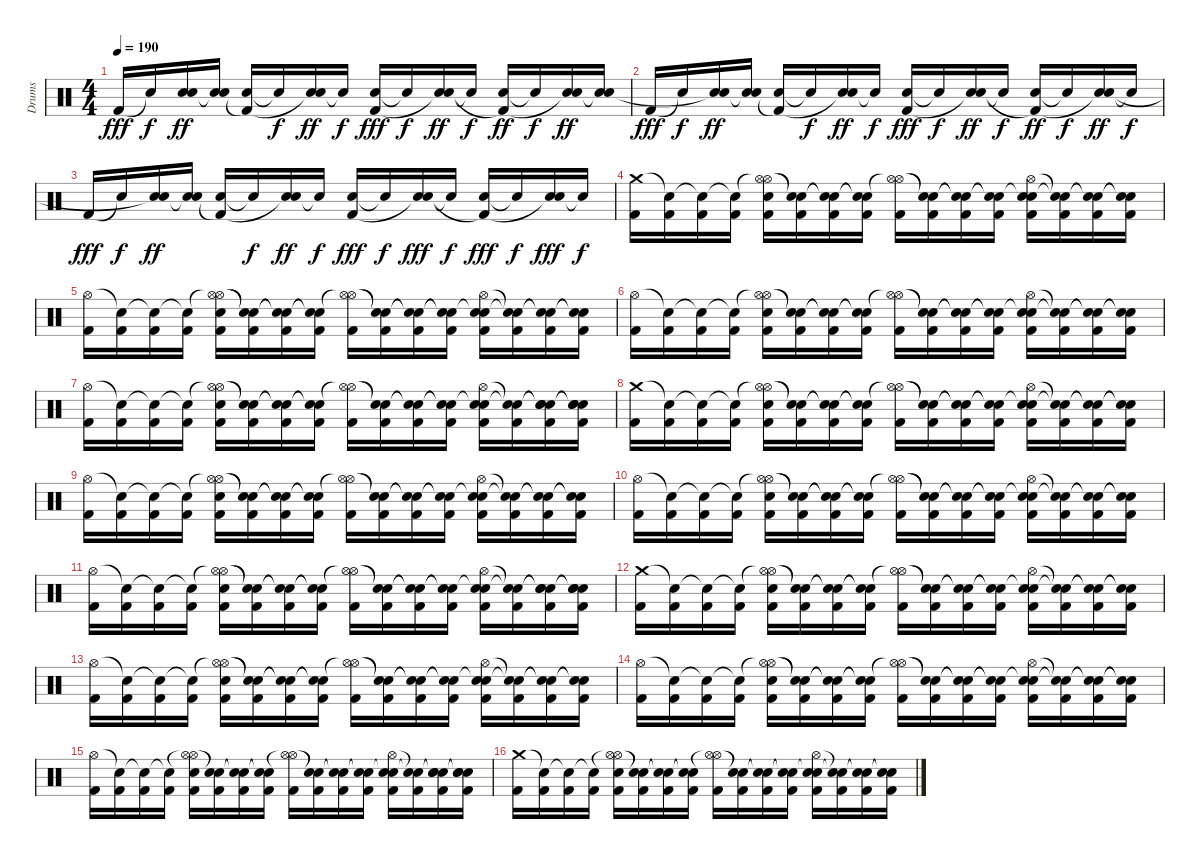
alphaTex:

\track ("Drums" "Drums") {instrument percussion}
\staff {score}
\articulation defaults
\ts (4 4)
\tempo 190
\clef neutral
\ks c "Kick (hit) 2".16{dy fff} "Snare (hit)"{t}.16{dy f}
("Electric Snare (hit)" "Snare (hit)"{t}).16{dy ff} ("Electric Snare (hit)" "Snare (hit)"{t}).16 ("Electric Snare (hit)" "Kick (hit) 2"{t}).16 "Snare (hit)"{t}.16{dy f} ("Electric Snare (hit)" "Snare (hit)"{t}).16{dy ff} "Snare (hit)"{t}.16{dy f} ("Electric Snare (hit)" "Kick (hit) 2").16{dy fff} "Snare (hit)"{t}.16{dy f} ("Electric Snare (hit)" "Snare (hit)"{t}).16{dy ff} "Snare (hit)"{t}.16{dy f} ("Electric Snare (hit)" "Kick (hit) 2"{t}).16{dy ff} "Snare (hit)"{t}.16{dy f} ("Electric Snare (hit)" "Snare (hit)"{t}).16{dy ff} ("Electric Snare (hit)" "Snare (hit)"{t}).16 |
"Kick (hit) 2".16{dy fff} "Snare (hit)"{t}.16{dy f} ("Electric Snare (hit)" "Snare (hit)"{t}).16{dy ff} ("Electric Snare (hit)" "Snare (hit)"{t}).16 ("Electric Snare (hit)" "Kick (hit) 2"{t}).16 "Snare (hit)"{t}.16{dy f} ("Electric Snare (hit)" "Snare (hit)"{t}).16{dy ff} "Snare (hit)"{t}.16{dy f} ("Electric Snare (hit)" "Kick (hit) 2").16{dy fff} "Snare (hit)"{t}.16{dy f} ("Electric Snare (hit)" "Snare (hit)"{t}).16{dy ff} "Snare (hit)"{t}.16{dy f} ("Electric Snare (hit)" "Kick (hit) 2"{t}).16{dy ff} "Snare (hit)"{t}.16{dy f} ("Electric Snare (hit)" "Snare (hit)"{t}).16{dy ff} "Snare (hit)"{t}.16{dy f} |
"Kick (hit) 2".16{dy fff} "Snare (hit)"{t}.16{dy f} ("Electric Snare (hit)" "Snare (hit)"{t}).16{dy ff} ("Electric Snare (hit)" "Snare (hit)"{t}).16 ("Electric Snare (hit)" "Kick (hit) 2"{t}).16 "Snare (hit)"{t}.16{dy f} ("Electric Snare (hit)" "Snare (hit)"{t}).16{dy ff} "Snare (hit)"{t}.16{dy f} ("Electric Snare (hit)" "Kick (hit) 2").16{dy fff} "Snare (hit)"{t}.16{dy f} ("Electric Snare (hit)" "Snare (hit)"{t}).16{dy fff} "Snare (hit)"{t}.16{dy f} ("Electric Snare (hit)" "Kick (hit) 2"{t}).16{dy fff} "Snare (hit)"{t}.16{dy f} ("Electric Snare (hit)" "Snare (hit)"{t}).16{dy fff} "Snare (hit)"{t}.16{dy f} |
("Crash medium (hit)" "Kick (hit) 2").16 ("Snare (hit)"{t} "Kick (hit) 2").16 ("Snare (hit)"{t} "Kick (hit) 2").16 ("Snare (hit)"{t} "Kick (hit) 2").16 ("Hi-Hat (open)"{t} "Hi-Hat (open)" "Electric Snare (hit)" "Kick (hit) 2").16 ("Snare (hit)"{t} "Snare (hit)"{t} "Kick (hit) 2").16 ("Snare (hit)"{t} "Snare (hit)"{t} "Kick (hit) 2").16 ("Snare (hit)"{t} "Snare (hit)"{t} "Kick (hit) 2").16 ("Hi-Hat (open)" "Hi-Hat (open)"{t} "Kick (hit) 2").16 ("Snare (hit)"{t} "Snare (hit)"{t} "Kick (hit) 2").16 ("Snare (hit)"{t} "Snare (hit)"{t} "Kick (hit) 2").16 ("Snare (hit)"{t} "Snare (hit)"{t} "Kick (hit) 2").16 ("Snare (hit)"{t} "Hi-Hat (open)" "Electric Snare (hit)" "Kick (hit) 2").16 ("Snare (hit)"{t} "Snare (hit)"{t} "Kick (hit) 2").16 ("Snare (hit)"{t} "Snare (hit)"{t} "Kick (hit) 2").16 ("Snare (hit)"{t} "Snare (hit)"{t} "Kick (hit) 2").16 |
("Hi-Hat (open)" "Kick (hit) 2").16 ("Snare (hit)"{t} "Kick (hit) 2").16 ("Snare (hit)"{t} "Kick (hit) 2").16 ("Snare (hit)"{t} "Kick (hit) 2").16 ("Hi-Hat (open)"{t} "Hi-Hat (open)" "Electric Snare (hit)" "Kick (hit) 2").16 ("Snare (hit)"{t} "Snare (hit)"{t} "Kick (hit) 2").16 ("Snare (hit)"{t} "Snare (hit)"{t} "Kick (hit) 2").16 ("Snare (hit)"{t} "Snare (hit)"{t} "Kick (hit) 2").16 ("Hi-Hat (open)" "Hi-Hat (open)"{t} "Kick (hit) 2").16 ("Snare (hit)"{t} "Snare (hit)"{t} "Kick (hit) 2").16 ("Snare (hit)"{t} "Snare (hit)"{t} "Kick (hit) 2").16 ("Snare (hit)"{t} "Snare (hit)"{t} "Kick (hit) 2").16 ("Snare (hit)"{t} "Hi-Hat (open)" "Electric Snare (hit)" "Kick (hit) 2").16 ("Snare (hit)"{t} "Snare (hit)"{t} "Kick (hit) 2").16 ("Snare (hit)"{t} "Snare (hit)"{t} "Kick (hit) 2").16 ("Snare (hit)"{t} "Snare (hit)"{t} "Kick (hit) 2").16 |
("Hi-Hat (open)" "Kick (hit) 2").16 ("Snare (hit)"{t} "Kick (hit) 2").16 ("Snare (hit)"{t} "Kick (hit) 2").16 ("Snare (hit)"{t} "Kick (hit) 2").16 ("Hi-Hat (open)"{t} "Hi-Hat (open)" "Electric Snare (hit)" "Kick (hit) 2").16 ("Snare (hit)"{t} "Snare (hit)"{t} "Kick (hit) 2").16 ("Snare (hit)"{t} "Snare (hit)"{t} "Kick (hit) 2").16 ("Snare (hit)"{t} "Snare (hit)"{t} "Kick (hit) 2").16 ("Hi-Hat (open)" "Hi-Hat (open)"{t} "Kick (hit) 2").16 ("Snare (hit)"{t} "Snare (hit)"{t} "Kick (hit) 2").16 ("Snare (hit)"{t} "Snare (hit)"{t} "Kick (hit) 2").16 ("Snare (hit)"{t} "Snare (hit)"{t} "Kick (hit) 2").16 ("Snare (hit)"{t} "Hi-Hat (open)" "Electric Snare (hit)" "Kick (hit) 2").16 ("Snare (hit)"{t} "Snare (hit)"{t} "Kick (hit) 2").16 ("Snare (hit)"{t} "Snare (hit)"{t} "Kick (hit) 2").16 ("Snare (hit)"{t} "Snare (hit)"{t} "Kick (hit) 2").16 |
("Hi-Hat (open)" "Kick (hit) 2").16 ("Snare (hit)"{t} "Kick (hit) 2").16 ("Snare (hit)"{t} "Kick (hit) 2").16 ("Snare (hit)"{t} "Kick (hit) 2").16 ("Hi-Hat (open)"{t} "Hi-Hat (open)" "Electric Snare (hit)" "Kick (hit) 2").16 ("Snare (hit)"{t} "Snare (hit)"{t} "Kick (hit) 2").16 ("Snare (hit)"{t} "Snare (hit)"{t} "Kick (hit) 2").16 ("Snare (hit)"{t} "Snare (hit)"{t} "Kick (hit) 2").16 ("Hi-Hat (open)" "Hi-Hat (open)"{t} "Kick (hit) 2").16 ("Snare (hit)"{t} "Snare (hit)"{t} "Kick (hit) 2").16 ("Snare (hit)"{t} "Snare (hit)"{t} "Kick (hit) 2").16 ("Snare (hit)"{t} "Snare (hit)"{t} "Kick (hit) 2").16 ("Snare (hit)"{t} "Hi-Hat (open)" "Electric Snare (hit)" "Kick (hit) 2").16 ("Snare (hit)"{t} "Snare (hit)"{t} "Kick (hit) 2").16 ("Snare (hit)"{t} "Snare (hit)"{t} "Electric Snare (hit)" "Kick (hit) 2").16 ("Snare (hit)"{t} "Snare (hit)"{t} "Electric Snare (hit)" "Kick (hit) 2").16 |
("Crash medium (hit)" "Kick (hit) 2").16 ("Snare (hit)"{t} "Kick (hit) 2").16 ("Snare (hit)"{t} "Kick (hit) 2").16 ("Snare (hit)"{t} "Kick (hit) 2").16 ("Hi-Hat (open)"{t} "Hi-Hat (open)" "Electric Snare (hit)" "Kick (hit) 2").16 ("Snare (hit)"{t} "Snare (hit)"{t} "Kick (hit) 2").16 ("Snare (hit)"{t} "Snare (hit)"{t} "Kick (hit) 2").16 ("Snare (hit)"{t} "Snare (hit)"{t} "Kick (hit) 2").16 ("Hi-Hat (open)" "Hi-Hat (open)"{t} "Kick (hit) 2").16 ("Snare (hit)"{t} "Snare (hit)"{t} "Kick (hit) 2").16 ("Snare (hit)"{t} "Snare (hit)"{t} "Kick (hit) 2").16 ("Snare (hit)"{t} "Snare (hit)"{t} "Kick (hit) 2").16 ("Snare (hit)"{t} "Hi-Hat (open)" "Electric Snare (hit)" "Kick (hit) 2").16 ("Snare (hit)"{t} "Snare (hit)"{t} "Kick (hit) 2").16 ("Snare (hit)"{t} "Snare (hit)"{t} "Kick (hit) 2").16 ("Snare (hit)"{t} "Snare (hit)"{t} "Kick (hit) 2").16 |
("Hi-Hat (open)" "Kick (hit) 2").16 ("Snare (hit)"{t} "Kick (hit) 2").16 ("Snare (hit)"{t} "Kick (hit) 2").16 ("Snare (hit)"{t} "Kick (hit) 2").16 ("Hi-Hat (open)"{t} "Hi-Hat (open)" "Electric Snare (hit)" "Kick (hit) 2").16 ("Snare (hit)"{t} "Snare (hit)"{t} "Kick (hit) 2").16 ("Snare (hit)"{t} "Snare (hit)"{t} "Kick (hit) 2").16 ("Snare (hit)"{t} "Snare (hit)"{t} "Kick (hit) 2").16 ("Hi-Hat (open)" "Hi-Hat (open)"{t} "Kick (hit) 2").16 ("Snare (hit)"{t} "Snare (hit)"{t} "Kick (hit) 2").16 ("Snare (hit)"{t} "Snare (hit)"{t} "Kick (hit) 2").16 ("Snare (hit)"{t} "Snare (hit)"{t} "Kick (hit) 2").16 ("Snare (hit)"{t} "Hi-Hat (open)" "Electric Snare (hit)" "Kick (hit) 2").16 ("Snare (hit)"{t} "Snare (hit)"{t} "Kick (hit) 2").16 ("Snare (hit)"{t} "Snare (hit)"{t} "Kick (hit) 2").16 ("Snare (hit)"{t} "Snare (hit)"{t} "Kick (hit) 2").16 |
("Hi-Hat (open)" "Kick (hit) 2").16 ("Snare (hit)"{t} "Kick (hit) 2").16 ("Snare (hit)"{t} "Kick (hit) 2").16 ("Snare (hit)"{t} "Kick (hit) 2").16 ("Hi-Hat (open)"{t} "Hi-Hat (open)" "Electric Snare (hit)" "Kick (hit) 2").16 ("Snare (hit)"{t} "Snare (hit)"{t} "Kick (hit) 2").16 ("Snare (hit)"{t} "Snare (hit)"{t} "Kick (hit) 2").16 ("Snare (hit)"{t} "Snare (hit)"{t} "Kick (hit) 2").16 ("Hi-Hat (open)" "Hi-Hat (open)"{t} "Kick (hit) 2").16 ("Snare (hit)"{t} "Snare (hit)"{t} "Kick (hit) 2").16 ("Snare (hit)"{t} "Snare (hit)"{t} "Kick (hit) 2").16 ("Snare (hit)"{t} "Snare (hit)"{t} "Kick (hit) 2").16 ("Snare (hit)"{t} "Hi-Hat (open)" "Electric Snare (hit)" "Kick (hit) 2").16 ("Snare (hit)"{t} "Snare (hit)"{t} "Kick (hit) 2").16 ("Snare (hit)"{t} "Snare (hit)"{t} "Kick (hit) 2").16 ("Snare (hit)"{t} "Snare (hit)"{t} "Kick (hit) 2").16 |
("Hi-Hat (open)" "Kick (hit) 2").16 ("Snare (hit)"{t} "Kick (hit) 2").16 ("Snare (hit)"{t} "Kick (hit) 2").16 ("Snare (hit)"{t} "Kick (hit) 2").16 ("Hi-Hat (open)"{t} "Hi-Hat (open)" "Electric Snare (hit)" "Kick (hit) 2").16 ("Snare (hit)"{t} "Snare (hit)"{t} "Kick (hit) 2").16 ("Snare (hit)"{t} "Snare (hit)"{t} "Kick (hit) 2").16 ("Snare (hit)"{t} "Snare (hit)"{t} "Kick (hit) 2").16 ("Hi-Hat (open)" "Hi-Hat (open)"{t} "Kick (hit) 2").16 ("Snare (hit)"{t} "Snare (hit)"{t} "Kick (hit) 2").16 ("Snare (hit)"{t} "Snare (hit)"{t} "Kick (hit) 2").16 ("Snare (hit)"{t} "Snare (hit)"{t} "Kick (hit) 2").16 ("Snare (hit)"{t} "Hi-Hat (open)" "Electric Snare (hit)" "Kick (hit) 2").16 ("Snare (hit)"{t} "Snare (hit)"{t} "Kick (hit) 2").16 ("Snare (hit)"{t} "Snare (hit)"{t} "Electric Snare (hit)" "Kick (hit) 2").16 ("Snare (hit)"{t} "Snare (hit)"{t} "Electric Snare (hit)" "Kick (hit) 2").16 |
("Crash medium (hit)" "Kick (hit) 2").16 ("Snare (hit)"{t} "Kick (hit) 2").16 ("Snare (hit)"{t} "Kick (hit) 2").16 ("Snare (hit)"{t} "Kick (hit) 2").16 ("Hi-Hat (open)"{t} "Hi-Hat (open)" "Electric Snare (hit)" "Kick (hit) 2").16 ("Snare (hit)"{t} "Snare (hit)"{t} "Kick (hit) 2").16 ("Snare (hit)"{t} "Snare (hit)"{t} "Kick (hit) 2").16 ("Snare (hit)"{t} "Snare (hit)"{t} "Kick (hit) 2").16 ("Hi-Hat (open)" "Hi-Hat (open)"{t} "Kick (hit) 2").16 ("Snare (hit)"{t} "Snare (hit)"{t} "Kick (hit) 2").16 ("Snare (hit)"{t} "Snare (hit)"{t} "Kick (hit) 2").16 ("Snare (hit)"{t} "Snare (hit)"{t} "Kick (hit) 2").16 ("Snare (hit)"{t} "Hi-Hat (open)" "Electric Snare (hit)" "Kick (hit) 2").16 ("Snare (hit)"{t} "Snare (hit)"{t} "Kick (hit) 2").16 ("Snare (hit)"{t} "Snare (hit)"{t} "Kick (hit) 2").16 ("Snare (hit)"{t} "Snare (hit)"{t} "Kick (hit) 2").16 |
("Hi-Hat (open)" "Kick (hit) 2").16 ("Snare (hit)"{t} "Kick (hit) 2").16 ("Snare (hit)"{t} "Kick (hit) 2").16 ("Snare (hit)"{t} "Kick (hit) 2").16 ("Hi-Hat (open)"{t} "Hi-Hat (open)" "Electric Snare (hit)" "Kick (hit) 2").16 ("Snare (hit)"{t} "Snare (hit)"{t} "Kick (hit) 2").16 ("Snare (hit)"{t} "Snare (hit)"{t} "Kick (hit) 2").16 ("Snare (hit)"{t} "Snare (hit)"{t} "Kick (hit) 2").16 ("Hi-Hat (open)" "Hi-Hat (open)"{t} "Kick (hit) 2").16 ("Snare (hit)"{t} "Snare (hit)"{t} "Kick (hit) 2").16 ("Snare (hit)"{t} "Snare (hit)"{t} "Kick (hit) 2").16 ("Snare (hit)"{t} "Snare (hit)"{t} "Kick (hit) 2").16 ("Snare (hit)"{t} "Hi-Hat (open)" "Electric Snare (hit)" "Kick (hit) 2").16 ("Snare (hit)"{t} "Snare (hit)"{t} "Kick (hit) 2").16 ("Snare (hit)"{t} "Snare (hit)"{t} "Kick (hit) 2").16 ("Snare (hit)"{t} "Snare (hit)"{t} "Kick (hit) 2").16 |
("Hi-Hat (open)" "Kick (hit) 2").16 ("Snare (hit)"{t} "Kick (hit) 2").16 ("Snare (hit)"{t} "Kick (hit) 2").16 ("Snare (hit)"{t} "Kick (hit) 2").16 ("Hi-Hat (open)"{t} "Hi-Hat (open)" "Electric Snare (hit)" "Kick (hit) 2").16 ("Snare (hit)"{t} "Snare (hit)"{t} "Kick (hit) 2").16 ("Snare (hit)"{t} "Snare (hit)"{t} "Kick (hit) 2").16 ("Snare (hit)"{t} "Snare (hit)"{t} "Kick (hit) 2").16 ("Hi-Hat (open)" "Hi-Hat (open)"{t} "Kick (hit) 2").16 ("Snare (hit)"{t} "Snare (hit)"{t} "Kick (hit) 2").16 ("Snare (hit)"{t} "Snare (hit)"{t} "Kick (hit) 2").16 ("Snare (hit)"{t} "Snare (hit)"{t} "Kick (hit) 2").16 ("Snare (hit)"{t} "Hi-Hat (open)" "Electric Snare (hit)" "Kick (hit) 2").16 ("Snare (hit)"{t} "Snare (hit)"{t} "Kick (hit) 2").16 ("Snare (hit)"{t} "Snare (hit)"{t} "Kick (hit) 2").16 ("Snare (hit)"{t} "Snare (hit)"{t} "Kick (hit) 2").16 |
("Hi-Hat (open)" "Kick (hit) 2").16 ("Snare (hit)"{t} "Kick (hit) 2").16 ("Snare (hit)"{t} "Kick (hit) 2").16 ("Snare (hit)"{t} "Kick (hit) 2").16 ("Hi-Hat (open)"{t} "Hi-Hat (open)" "Electric Snare (hit)" "Kick (hit) 2").16 ("Snare (hit)"{t} "Snare (hit)"{t} "Kick (hit) 2").16 ("Snare (hit)"{t} "Snare (hit)"{t} "Kick (hit) 2").16 ("Snare (hit)"{t} "Snare (hit)"{t} "Kick (hit) 2").16 ("Hi-Hat (open)" "Hi-Hat (open)"{t} "Kick (hit) 2").16 ("Snare (hit)"{t} "Snare (hit)"{t} "Kick (hit) 2").16 ("Snare (hit)"{t} "Snare (hit)"{t} "Kick (hit) 2").16 ("Snare (hit)"{t} "Snare (hit)"{t} "Kick (hit) 2").16 ("Snare (hit)"{t} "Hi-Hat (open)" "Electric Snare (hit)" "Kick (hit) 2").16 ("Snare (hit)"{t} "Snare (hit)"{t} "Kick (hit) 2").16 ("Snare (hit)"{t} "Snare (hit)"{t} "Electric Snare (hit)" "Kick (hit) 2").16 ("Snare (hit)"{t} "Snare (hit)"{t} "Electric Snare (hit)" "Kick (hit) 2").16 |
("Crash medium (hit)" "Kick (hit) 2").16 ("Snare (hit)"{t} "Kick (hit) 2").16 ("Snare (hit)"{t} "Kick (hit) 2").16 ("Snare (hit)"{t} "Kick (hit) 2").16 ("Hi-Hat (open)"{t} "Hi-Hat (open)" "Electric Snare (hit)" "Kick (hit) 2").16 ("Snare (hit)"{t} "Snare (hit)"{t} "Kick (hit) 2").16 ("Snare (hit)"{t} "Snare (hit)"{t} "Kick (hit) 2").16 ("Snare (hit)"{t} "Snare (hit)"{t} "Kick (hit) 2").16 ("Hi-Hat (open)" "Hi-Hat (open)"{t} "Kick (hit) 2").16 ("Snare (hit)"{t} "Snare (hit)"{t} "Kick (hit) 2").16 ("Snare (hit)"{t} "Snare (hit)"{t} "Kick (hit) 2").16 ("Snare (hit)"{t} "Snare (hit)"{t} "Kick (hit) 2").16 ("Snare (hit)"{t} "Hi-Hat (open)" "Electric Snare (hit)" "Kick (hit) 2").16 ("Snare (hit)"{t} "Snare (hit)"{t} "Kick (hit) 2").16 ("Snare (hit)"{t} "Snare (hit)"{t} "Kick (hit) 2").16 ("Snare (hit)"{t} "Snare (hit)"{t} "Kick (hit) 2").16
